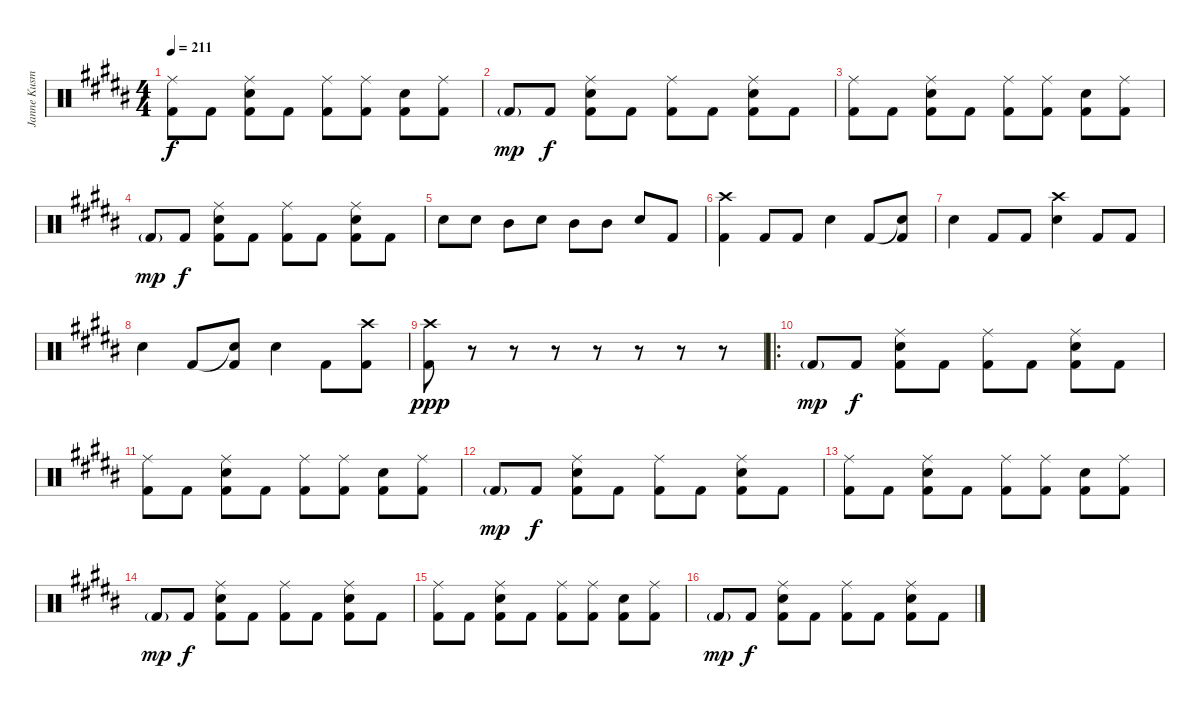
\track ("Janne Kusmin" "Janne Kusm") {instrument percussion}
\staff {score}
\articulation defaults
\ts (4 4)
\tempo 211
\clef neutral
\ks b
("Ride (middle)" "Kick (hit) 2").8{dy f} "Kick (hit) 2".8 ("Ride (middle)" "Electric Snare (hit)" "Kick (hit) 2").8 "Kick (hit) 2".8 ("Ride (middle)" "Kick (hit) 2").8 ("Ride (middle)" "Kick (hit) 2").8 ("Electric Snare (hit)" "Kick (hit) 2").8 ("Ride (middle)" "Kick (hit) 2").8 |
\ks g#minor "Kick (hit) 2"{g}.8{dy mp} "Kick (hit) 2".8{dy f}
("Ride (middle)" "Electric Snare (hit)" "Kick (hit) 2").8 "Kick (hit) 2".8 ("Ride (middle)" "Kick (hit) 2").8 "Kick (hit) 2".8 ("Ride (middle)" "Electric Snare (hit)" "Kick (hit) 2").8 "Kick (hit) 2".8 |
\ks b
("Ride (middle)" "Kick (hit) 2").8 "Kick (hit) 2".8 ("Ride (middle)" "Electric Snare (hit)" "Kick (hit) 2").8 "Kick (hit) 2".8 ("Ride (middle)" "Kick (hit) 2").8 ("Ride (middle)" "Kick (hit) 2").8 ("Electric Snare (hit)" "Kick (hit) 2").8 ("Ride (middle)" "Kick (hit) 2").8 |
\ks g#minor "Kick (hit) 2"{g}.8{dy mp} "Kick (hit) 2".8{dy f}
("Ride (middle)" "Electric Snare (hit)" "Kick (hit) 2").8 "Kick (hit) 2".8 ("Ride (middle)" "Kick (hit) 2").8 "Kick (hit) 2".8 ("Ride (middle)" "Electric Snare (hit)" "Kick (hit) 2").8 "Kick (hit) 2".8 |
\ks b "Electric Snare (hit)".8 "Electric Snare (hit)".8 "Mid Tom (hit)".8 "Electric Snare (hit)".8 "Mid Tom (hit)".8 "Mid Tom (hit)".8 "Electric Snare (hit)".8 "Kick (hit) 2".8
|
\ks g#minor
("Crash high (hit)" "Kick (hit) 2").4 "Kick (hit) 2".8 "Kick (hit) 2".8 "Electric Snare (hit)".4 "Kick (hit) 2".8 ("Snare (hit)"{t} "Kick (hit) 2").8 |
"Electric Snare (hit)".4 "Kick (hit) 2".8 "Kick (hit) 2".8 ("Crash high (hit)" "Electric Snare (hit)").4 "Kick (hit) 2".8 "Kick (hit) 2".8 |
"Electric Snare (hit)".4 "Kick (hit) 2".8 ("Snare (hit)"{t} "Kick (hit) 2").8 "Electric Snare (hit)".4 "Kick (hit) 2".8 ("Crash high (hit)" "Kick (hit) 2").8 |
\ks b
("Crash high (hit)" "Kick (hit) 2").8{dy ppp} r.8 r.8 r.8 r.8 r.8 r.8 r.8 |
\ro
\ks g#minor "Kick (hit) 2"{g}.8{dy mp} "Kick (hit) 2".8{dy f}
("Ride (middle)" "Electric Snare (hit)" "Kick (hit) 2").8 "Kick (hit) 2".8 ("Ride (middle)" "Kick (hit) 2").8 "Kick (hit) 2".8 ("Ride (middle)" "Electric Snare (hit)" "Kick (hit) 2").8 "Kick (hit) 2".8 |
\ks b
("Ride (middle)" "Kick (hit) 2").8 "Kick (hit) 2".8 ("Ride (middle)" "Electric Snare (hit)" "Kick (hit) 2").8 "Kick (hit) 2".8 ("Ride (middle)" "Kick (hit) 2").8 ("Ride (middle)" "Kick (hit) 2").8 ("Electric Snare (hit)" "Kick (hit) 2").8 ("Ride (middle)" "Kick (hit) 2").8 |
\ks g#minor "Kick (hit) 2"{g}.8{dy mp} "Kick (hit) 2".8{dy f}
("Ride (middle)" "Electric Snare (hit)" "Kick (hit) 2").8 "Kick (hit) 2".8 ("Ride (middle)" "Kick (hit) 2").8 "Kick (hit) 2".8 ("Ride (middle)" "Electric Snare (hit)" "Kick (hit) 2").8 "Kick (hit) 2".8 |
\ks b
("Ride (middle)" "Kick (hit) 2").8 "Kick (hit) 2".8 ("Ride (middle)" "Electric Snare (hit)" "Kick (hit) 2").8 "Kick (hit) 2".8 ("Ride (middle)" "Kick (hit) 2").8 ("Ride (middle)" "Kick (hit) 2").8 ("Electric Snare (hit)" "Kick (hit) 2").8 ("Ride (middle)" "Kick (hit) 2").8 |
\ks g#minor "Kick (hit) 2"{g}.8{dy mp} "Kick (hit) 2".8{dy f}
("Ride (middle)" "Electric Snare (hit)" "Kick (hit) 2").8 "Kick (hit) 2".8 ("Ride (middle)" "Kick (hit) 2").8 "Kick (hit) 2".8 ("Ride (middle)" "Electric Snare (hit)" "Kick (hit) 2").8 "Kick (hit) 2".8 |
\ks b
("Ride (middle)" "Kick (hit) 2").8 "Kick (hit) 2".8 ("Ride (middle)" "Electric Snare (hit)" "Kick (hit) 2").8 "Kick (hit) 2".8 ("Ride (middle)" "Kick (hit) 2").8 ("Ride (middle)" "Kick (hit) 2").8 ("Electric Snare (hit)" "Kick (hit) 2").8 ("Ride (middle)" "Kick (hit) 2").8 |
\ks g#minor "Kick (hit) 2"{g}.8{dy mp} "Kick (hit) 2".8{dy f}
("Ride (middle)" "Electric Snare (hit)" "Kick (hit) 2").8 "Kick (hit) 2".8 ("Ride (middle)" "Kick (hit) 2").8 "Kick (hit) 2".8 ("Ride (middle)" "Electric Snare (hit)" "Kick (hit) 2").8 "Kick (hit) 2".8
